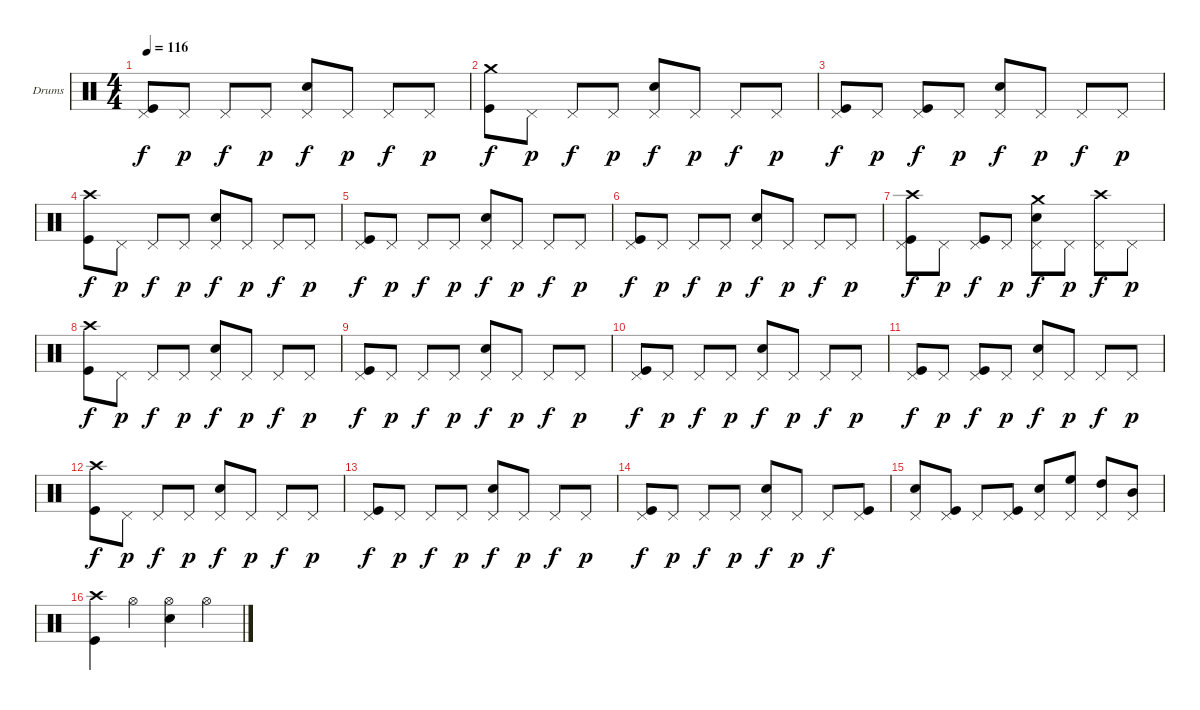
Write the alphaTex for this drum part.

\bracketExtendMode nobrackets
\firstSystemTrackNameOrientation horizontal
\otherSystemsTrackNameOrientation horizontal
\track ("Drumkit" "Drums") {instrument percussion}
\staff {score}
\articulation defaults
\ts (4 4)
\tempo 116
\clef neutral
\ks c
("Kick (hit)" "Pedal Hi-Hat (hit)").8{dy f} "Pedal Hi-Hat (hit)".8{dy p} "Pedal Hi-Hat (hit)".8{dy f} "Pedal Hi-Hat (hit)".8{dy p} ("Pedal Hi-Hat (hit)" "Snare (hit) 2").8{dy f} "Pedal Hi-Hat (hit)".8{dy p} "Pedal Hi-Hat (hit)".8{dy f} "Pedal Hi-Hat (hit)".8{dy p} |
("Kick (hit)" "Crash medium (hit)").8{dy f} "Pedal Hi-Hat (hit)".8{dy p} "Pedal Hi-Hat (hit)".8{dy f} "Pedal Hi-Hat (hit)".8{dy p} ("Pedal Hi-Hat (hit)" "Snare (hit) 2").8{dy f} "Pedal Hi-Hat (hit)".8{dy p} "Pedal Hi-Hat (hit)".8{dy f} "Pedal Hi-Hat (hit)".8{dy p} |
("Kick (hit)" "Pedal Hi-Hat (hit)").8{dy f} "Pedal Hi-Hat (hit)".8{dy p} ("Kick (hit)" "Pedal Hi-Hat (hit)").8{dy f} "Pedal Hi-Hat (hit)".8{dy p} ("Pedal Hi-Hat (hit)" "Snare (hit) 2").8{dy f} "Pedal Hi-Hat (hit)".8{dy p} "Pedal Hi-Hat (hit)".8{dy f} "Pedal Hi-Hat (hit)".8{dy p} |
("Kick (hit)" "Crash high (hit)").8{dy f} "Pedal Hi-Hat (hit)".8{dy p} "Pedal Hi-Hat (hit)".8{dy f} "Pedal Hi-Hat (hit)".8{dy p} ("Pedal Hi-Hat (hit)" "Snare (hit) 2").8{dy f} "Pedal Hi-Hat (hit)".8{dy p} "Pedal Hi-Hat (hit)".8{dy f} "Pedal Hi-Hat (hit)".8{dy p} |
("Kick (hit)" "Pedal Hi-Hat (hit)").8{dy f} "Pedal Hi-Hat (hit)".8{dy p} "Pedal Hi-Hat (hit)".8{dy f} "Pedal Hi-Hat (hit)".8{dy p} ("Pedal Hi-Hat (hit)" "Snare (hit) 2").8{dy f} "Pedal Hi-Hat (hit)".8{dy p} "Pedal Hi-Hat (hit)".8{dy f} "Pedal Hi-Hat (hit)".8{dy p} |
("Kick (hit)" "Pedal Hi-Hat (hit)").8{dy f} "Pedal Hi-Hat (hit)".8{dy p} "Pedal Hi-Hat (hit)".8{dy f} "Pedal Hi-Hat (hit)".8{dy p} ("Pedal Hi-Hat (hit)" "Snare (hit) 2").8{dy f} "Pedal Hi-Hat (hit)".8{dy p} "Pedal Hi-Hat (hit)".8{dy f} "Pedal Hi-Hat (hit)".8{dy p} |
("Kick (hit)" "Crash high (hit)" "Pedal Hi-Hat (hit)").8{dy f} "Pedal Hi-Hat (hit)".8{dy p} ("Kick (hit)" "Pedal Hi-Hat (hit)").8{dy f} "Pedal Hi-Hat (hit)".8{dy p} ("Crash medium (hit)" "Pedal Hi-Hat (hit)" "Snare (hit) 2").8{dy f} "Pedal Hi-Hat (hit)".8{dy p} ("Crash high (hit)" "Pedal Hi-Hat (hit)").8{dy f} "Pedal Hi-Hat (hit)".8{dy p} |
("Kick (hit)" "Crash high (hit)").8{dy f} "Pedal Hi-Hat (hit)".8{dy p} "Pedal Hi-Hat (hit)".8{dy f} "Pedal Hi-Hat (hit)".8{dy p} ("Pedal Hi-Hat (hit)" "Snare (hit) 2").8{dy f} "Pedal Hi-Hat (hit)".8{dy p} "Pedal Hi-Hat (hit)".8{dy f} "Pedal Hi-Hat (hit)".8{dy p} |
("Kick (hit)" "Pedal Hi-Hat (hit)").8{dy f} "Pedal Hi-Hat (hit)".8{dy p} "Pedal Hi-Hat (hit)".8{dy f} "Pedal Hi-Hat (hit)".8{dy p} ("Pedal Hi-Hat (hit)" "Snare (hit) 2").8{dy f} "Pedal Hi-Hat (hit)".8{dy p} "Pedal Hi-Hat (hit)".8{dy f} "Pedal Hi-Hat (hit)".8{dy p} |
("Kick (hit)" "Pedal Hi-Hat (hit)").8{dy f} "Pedal Hi-Hat (hit)".8{dy p} "Pedal Hi-Hat (hit)".8{dy f} "Pedal Hi-Hat (hit)".8{dy p} ("Pedal Hi-Hat (hit)" "Snare (hit) 2").8{dy f} "Pedal Hi-Hat (hit)".8{dy p} "Pedal Hi-Hat (hit)".8{dy f} "Pedal Hi-Hat (hit)".8{dy p} |
("Kick (hit)" "Pedal Hi-Hat (hit)").8{dy f} "Pedal Hi-Hat (hit)".8{dy p} ("Kick (hit)" "Pedal Hi-Hat (hit)").8{dy f} "Pedal Hi-Hat (hit)".8{dy p} ("Pedal Hi-Hat (hit)" "Snare (hit) 2").8{dy f} "Pedal Hi-Hat (hit)".8{dy p} "Pedal Hi-Hat (hit)".8{dy f} "Pedal Hi-Hat (hit)".8{dy p} |
("Kick (hit)" "Crash high (hit)").8{dy f} "Pedal Hi-Hat (hit)".8{dy p} "Pedal Hi-Hat (hit)".8{dy f} "Pedal Hi-Hat (hit)".8{dy p} ("Pedal Hi-Hat (hit)" "Snare (hit) 2").8{dy f} "Pedal Hi-Hat (hit)".8{dy p} "Pedal Hi-Hat (hit)".8{dy f} "Pedal Hi-Hat (hit)".8{dy p} |
("Kick (hit)" "Pedal Hi-Hat (hit)").8{dy f} "Pedal Hi-Hat (hit)".8{dy p} "Pedal Hi-Hat (hit)".8{dy f} "Pedal Hi-Hat (hit)".8{dy p} ("Pedal Hi-Hat (hit)" "Snare (hit) 2").8{dy f} "Pedal Hi-Hat (hit)".8{dy p} "Pedal Hi-Hat (hit)".8{dy f} "Pedal Hi-Hat (hit)".8{dy p} |
("Kick (hit)" "Pedal Hi-Hat (hit)").8{dy f} "Pedal Hi-Hat (hit)".8{dy p} "Pedal Hi-Hat (hit)".8{dy f} "Pedal Hi-Hat (hit)".8{dy p} ("Pedal Hi-Hat (hit)" "Snare (hit) 2").8{dy f} "Pedal Hi-Hat (hit)".8{dy p} "Pedal Hi-Hat (hit)".8{dy f} ("Kick (hit)" "Pedal Hi-Hat (hit)").8 |
("Pedal Hi-Hat (hit)" "Snare (hit) 2").8 ("Kick (hit)" "Pedal Hi-Hat (hit)").8 "Pedal Hi-Hat (hit)".8 ("Kick (hit)" "Pedal Hi-Hat (hit)").8 ("Pedal Hi-Hat (hit)" "Snare (hit) 2").8 ("High Floor Tom (hit)" "Pedal Hi-Hat (hit)").8 ("High Tom (hit)" "Pedal Hi-Hat (hit)").8 ("Mid Tom (hit)" "Pedal Hi-Hat (hit)").8 |
("Kick (hit)" "Crash high (hit)").4 "Hi-Hat (open)".4 ("Hi-Hat (open)" "Snare (hit) 2").4 "Hi-Hat (open)".4
